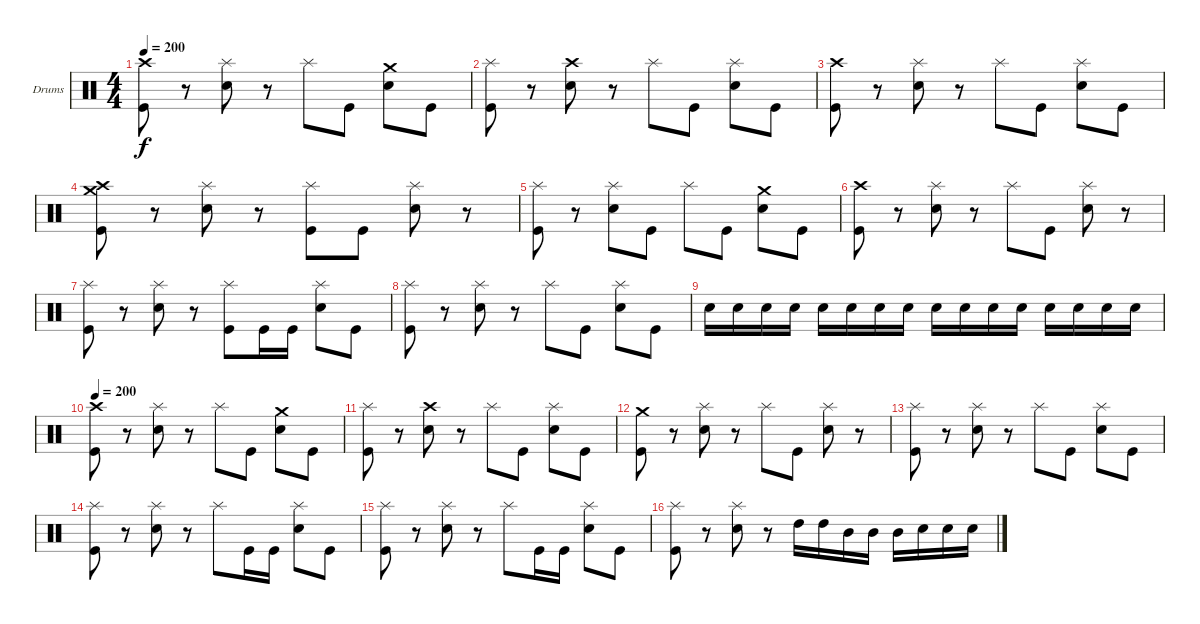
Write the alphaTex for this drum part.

\bracketExtendMode groupsimilarinstruments
\firstSystemTrackNameOrientation horizontal
\otherSystemsTrackNameOrientation horizontal
\track ("Drumkit" "Drums") {instrument percussion}
\staff {score}
\articulation defaults
\ts (4 4)
\tempo 200
\clef neutral
\ks c
("Crash high (hit)" "Kick (hit)").8{dy f} r.8 ("Splash (hit)" "Snare (hit) 2").8 r.8 "Splash (hit)".8 "Kick (hit)".8 ("Crash medium (hit)" "Snare (hit) 2").8 "Kick (hit)".8 |
("Splash (hit)" "Kick (hit)").8 r.8 ("Crash high (hit)" "Snare (hit) 2").8 r.8 "Splash (hit)".8 "Kick (hit)".8 ("Splash (hit)" "Snare (hit) 2").8 "Kick (hit)".8 |
("Crash high (hit)" "Kick (hit)").8 r.8 ("Splash (hit)" "Snare (hit) 2").8 r.8 "Splash (hit)".8 "Kick (hit)".8 ("Splash (hit)" "Snare (hit) 2").8 "Kick (hit)".8 |
("Crash medium (hit)" "Crash high (hit)" "Kick (hit)").8 r.8 ("Splash (hit)" "Snare (hit) 2").8 r.8 ("Splash (hit)" "Kick (hit)").8 "Kick (hit)".8 ("Splash (hit)" "Snare (hit) 2").8 r.8 |
("Splash (hit)" "Kick (hit)").8 r.8 ("Splash (hit)" "Snare (hit) 2").8 "Kick (hit)".8 "Splash (hit)".8 "Kick (hit)".8 ("Crash medium (hit)" "Snare (hit) 2").8 "Kick (hit)".8 |
("Crash high (hit)" "Kick (hit)").8 r.8 ("Splash (hit)" "Snare (hit) 2").8 r.8 "Splash (hit)".8 "Kick (hit)".8 ("Splash (hit)" "Snare (hit) 2").8 r.8 |
("Splash (hit)" "Kick (hit)").8 r.8 ("Splash (hit)" "Snare (hit) 2").8 r.8 ("Splash (hit)" "Kick (hit)").8 "Kick (hit)".16 "Kick (hit)".16 ("Splash (hit)" "Snare (hit) 2").8 "Kick (hit)".8 |
("Splash (hit)" "Kick (hit)").8 r.8 ("Splash (hit)" "Snare (hit) 2").8 r.8 "Splash (hit)".8 "Kick (hit)".8 ("Splash (hit)" "Snare (hit) 2").8 "Kick (hit)".8 |
"Snare (hit) 2".16 "Snare (hit) 2".16 "Snare (hit) 2".16 "Snare (hit) 2".16 "Snare (hit) 2".16 "Snare (hit) 2".16 "Snare (hit) 2".16 "Snare (hit) 2".16 "Snare (hit) 2".16 "Snare (hit) 2".16 "Snare (hit) 2".16 "Snare (hit) 2".16 "Snare (hit) 2".16 "Snare (hit) 2".16 "Snare (hit) 2".16 "Snare (hit) 2".16 |
\tempo 200
("Crash high (hit)" "Kick (hit)").8 r.8 ("Splash (hit)" "Snare (hit) 2").8 r.8 "Splash (hit)".8 "Kick (hit)".8 ("Crash medium (hit)" "Snare (hit) 2").8 "Kick (hit)".8 |
("Splash (hit)" "Kick (hit)").8 r.8 ("Crash high (hit)" "Snare (hit) 2").8 r.8 "Splash (hit)".8 "Kick (hit)".8 ("Splash (hit)" "Snare (hit) 2").8 "Kick (hit)".8 |
("Crash medium (hit)" "Kick (hit)").8 r.8 ("Splash (hit)" "Snare (hit) 2").8 r.8 "Splash (hit)".8 "Kick (hit)".8 ("Splash (hit)" "Snare (hit) 2").8 r.8 |
("Splash (hit)" "Kick (hit)").8 r.8 ("Splash (hit)" "Snare (hit) 2").8 r.8 "Splash (hit)".8 "Kick (hit)".8 ("Splash (hit)" "Snare (hit) 2").8 "Kick (hit)".8 |
("Splash (hit)" "Kick (hit)").8 r.8 ("Splash (hit)" "Snare (hit) 2").8 r.8 "Splash (hit)".8 "Kick (hit)".16 "Kick (hit)".16 ("Splash (hit)" "Snare (hit) 2").8 "Kick (hit)".8 |
("Splash (hit)" "Kick (hit)").8 r.8 ("Splash (hit)" "Snare (hit) 2").8 r.8 "Splash (hit)".8 "Kick (hit)".16 "Kick (hit)".16 ("Splash (hit)" "Snare (hit) 2").8 "Kick (hit)".8 |
("Splash (hit)" "Kick (hit)").8 r.8 ("Splash (hit)" "Snare (hit) 2").8 r.8 "High Tom (hit)".16 "High Tom (hit)".16 "Mid Tom (hit)".16 "Mid Tom (hit)".16 "Mid Tom (hit)".16 "Snare (hit) 2".16 "Snare (hit) 2".16 "Snare (hit) 2".16
